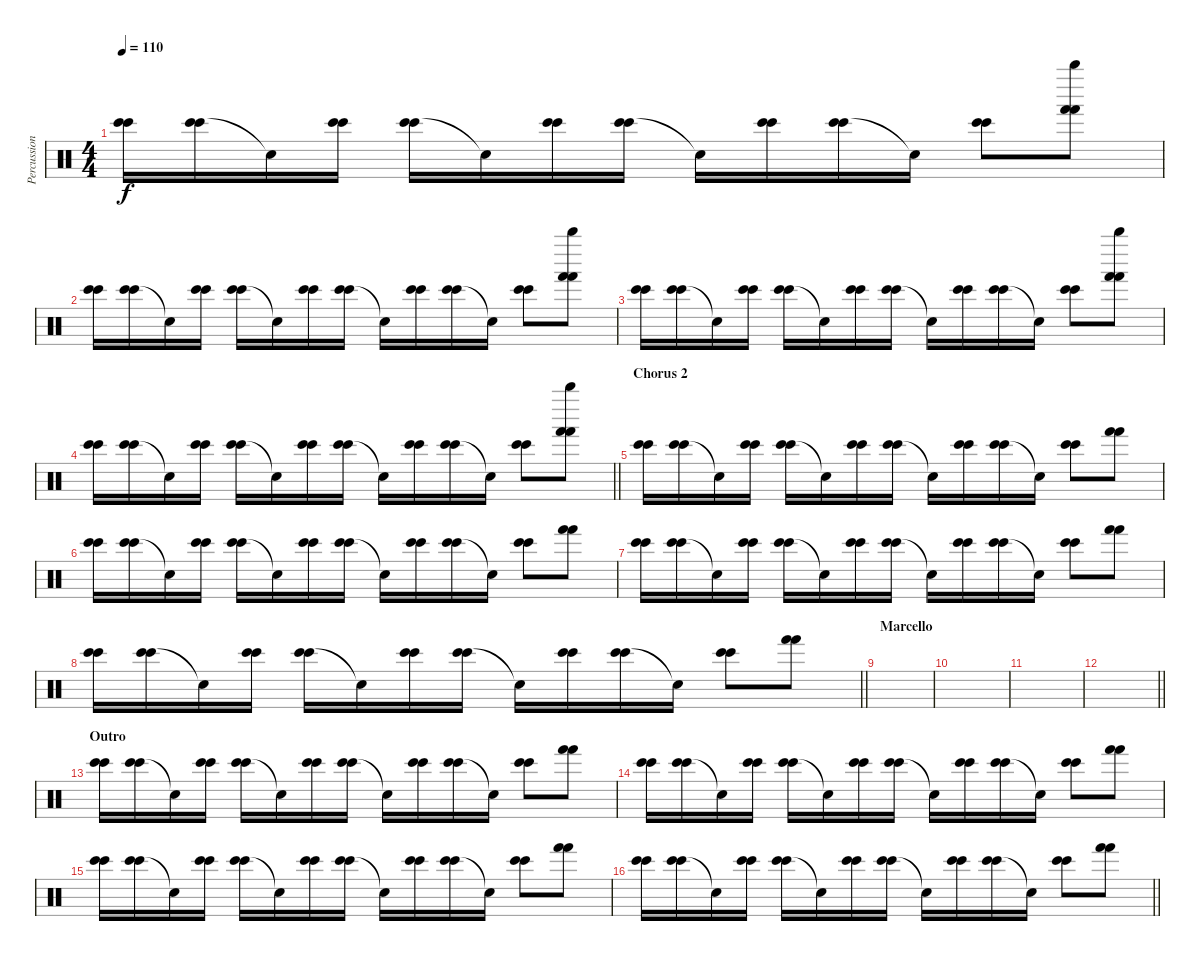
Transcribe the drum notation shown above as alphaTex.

\track ("Percussions" "Percussion") {instrument percussion}
\staff {score}
\articulation defaults
\ts (4 4)
\section ("" "")
\tempo 110
\clef neutral
\ks c
("Bongo High (hit)" "Bongo High (hit)").16{dy f} ("Bongo High (hit)" "Bongo High (hit)").16 "Snare (hit)"{t}.16 ("Bongo High (hit)" "Bongo High (hit)").16 ("Bongo High (hit)" "Bongo High (hit)").16 "Snare (hit)"{t}.16 ("Bongo High (hit)" "Bongo High (hit)").16 ("Bongo High (hit)" "Bongo High (hit)").16 "Snare (hit)"{t}.16 ("Bongo High (hit)" "Bongo High (hit)").16 ("Bongo High (hit)" "Bongo High (hit)").16 "Snare (hit)"{t}.16 ("Bongo High (hit)" "Bongo High (hit)").8 ("Whistle high (hit)" "Hand (hit)" "Hand (hit)").8 |
("Bongo High (hit)" "Bongo High (hit)").16 ("Bongo High (hit)" "Bongo High (hit)").16 "Snare (hit)"{t}.16 ("Bongo High (hit)" "Bongo High (hit)").16 ("Bongo High (hit)" "Bongo High (hit)").16 "Snare (hit)"{t}.16 ("Bongo High (hit)" "Bongo High (hit)").16 ("Bongo High (hit)" "Bongo High (hit)").16 "Snare (hit)"{t}.16 ("Bongo High (hit)" "Bongo High (hit)").16 ("Bongo High (hit)" "Bongo High (hit)").16 "Snare (hit)"{t}.16 ("Bongo High (hit)" "Bongo High (hit)").8 ("Whistle high (hit)" "Hand (hit)" "Hand (hit)").8 |
("Bongo High (hit)" "Bongo High (hit)").16 ("Bongo High (hit)" "Bongo High (hit)").16 "Snare (hit)"{t}.16 ("Bongo High (hit)" "Bongo High (hit)").16 ("Bongo High (hit)" "Bongo High (hit)").16 "Snare (hit)"{t}.16 ("Bongo High (hit)" "Bongo High (hit)").16 ("Bongo High (hit)" "Bongo High (hit)").16 "Snare (hit)"{t}.16 ("Bongo High (hit)" "Bongo High (hit)").16 ("Bongo High (hit)" "Bongo High (hit)").16 "Snare (hit)"{t}.16 ("Bongo High (hit)" "Bongo High (hit)").8 ("Whistle high (hit)" "Hand (hit)" "Hand (hit)").8 |
\barLineRight lightlight
("Bongo High (hit)" "Bongo High (hit)").16 ("Bongo High (hit)" "Bongo High (hit)").16 "Snare (hit)"{t}.16 ("Bongo High (hit)" "Bongo High (hit)").16 ("Bongo High (hit)" "Bongo High (hit)").16 "Snare (hit)"{t}.16 ("Bongo High (hit)" "Bongo High (hit)").16 ("Bongo High (hit)" "Bongo High (hit)").16 "Snare (hit)"{t}.16 ("Bongo High (hit)" "Bongo High (hit)").16 ("Bongo High (hit)" "Bongo High (hit)").16 "Snare (hit)"{t}.16 ("Bongo High (hit)" "Bongo High (hit)").8 ("Whistle high (hit)" "Hand (hit)" "Hand (hit)").8 |
\section ("" "Chorus 2")
("Bongo High (hit)" "Bongo High (hit)").16 ("Bongo High (hit)" "Bongo High (hit)").16 "Snare (hit)"{t}.16 ("Bongo High (hit)" "Bongo High (hit)").16 ("Bongo High (hit)" "Bongo High (hit)").16 "Snare (hit)"{t}.16 ("Bongo High (hit)" "Bongo High (hit)").16 ("Bongo High (hit)" "Bongo High (hit)").16 "Snare (hit)"{t}.16 ("Bongo High (hit)" "Bongo High (hit)").16 ("Bongo High (hit)" "Bongo High (hit)").16 "Snare (hit)"{t}.16 ("Bongo High (hit)" "Bongo High (hit)").8 ("Hand (hit)" "Hand (hit)").8 |
("Bongo High (hit)" "Bongo High (hit)").16 ("Bongo High (hit)" "Bongo High (hit)").16 "Snare (hit)"{t}.16 ("Bongo High (hit)" "Bongo High (hit)").16 ("Bongo High (hit)" "Bongo High (hit)").16 "Snare (hit)"{t}.16 ("Bongo High (hit)" "Bongo High (hit)").16 ("Bongo High (hit)" "Bongo High (hit)").16 "Snare (hit)"{t}.16 ("Bongo High (hit)" "Bongo High (hit)").16 ("Bongo High (hit)" "Bongo High (hit)").16 "Snare (hit)"{t}.16 ("Bongo High (hit)" "Bongo High (hit)").8 ("Hand (hit)" "Hand (hit)").8 |
("Bongo High (hit)" "Bongo High (hit)").16 ("Bongo High (hit)" "Bongo High (hit)").16 "Snare (hit)"{t}.16 ("Bongo High (hit)" "Bongo High (hit)").16 ("Bongo High (hit)" "Bongo High (hit)").16 "Snare (hit)"{t}.16 ("Bongo High (hit)" "Bongo High (hit)").16 ("Bongo High (hit)" "Bongo High (hit)").16 "Snare (hit)"{t}.16 ("Bongo High (hit)" "Bongo High (hit)").16 ("Bongo High (hit)" "Bongo High (hit)").16 "Snare (hit)"{t}.16 ("Bongo High (hit)" "Bongo High (hit)").8 ("Hand (hit)" "Hand (hit)").8 |
\barLineRight lightlight
("Bongo High (hit)" "Bongo High (hit)").16 ("Bongo High (hit)" "Bongo High (hit)").16 "Snare (hit)"{t}.16 ("Bongo High (hit)" "Bongo High (hit)").16 ("Bongo High (hit)" "Bongo High (hit)").16 "Snare (hit)"{t}.16 ("Bongo High (hit)" "Bongo High (hit)").16 ("Bongo High (hit)" "Bongo High (hit)").16 "Snare (hit)"{t}.16 ("Bongo High (hit)" "Bongo High (hit)").16 ("Bongo High (hit)" "Bongo High (hit)").16 "Snare (hit)"{t}.16 ("Bongo High (hit)" "Bongo High (hit)").8 ("Hand (hit)" "Hand (hit)").8 |
\section ("" "Marcello")
|
|
|
\barLineRight lightlight
|
\section ("" "Outro")
("Bongo High (hit)" "Bongo High (hit)").16 ("Bongo High (hit)" "Bongo High (hit)").16 "Snare (hit)"{t}.16 ("Bongo High (hit)" "Bongo High (hit)").16 ("Bongo High (hit)" "Bongo High (hit)").16 "Snare (hit)"{t}.16 ("Bongo High (hit)" "Bongo High (hit)").16 ("Bongo High (hit)" "Bongo High (hit)").16 "Snare (hit)"{t}.16 ("Bongo High (hit)" "Bongo High (hit)").16 ("Bongo High (hit)" "Bongo High (hit)").16 "Snare (hit)"{t}.16 ("Bongo High (hit)" "Bongo High (hit)").8 ("Hand (hit)" "Hand (hit)").8 |
("Bongo High (hit)" "Bongo High (hit)").16 ("Bongo High (hit)" "Bongo High (hit)").16 "Snare (hit)"{t}.16 ("Bongo High (hit)" "Bongo High (hit)").16 ("Bongo High (hit)" "Bongo High (hit)").16 "Snare (hit)"{t}.16 ("Bongo High (hit)" "Bongo High (hit)").16 ("Bongo High (hit)" "Bongo High (hit)").16 "Snare (hit)"{t}.16 ("Bongo High (hit)" "Bongo High (hit)").16 ("Bongo High (hit)" "Bongo High (hit)").16 "Snare (hit)"{t}.16 ("Bongo High (hit)" "Bongo High (hit)").8 ("Hand (hit)" "Hand (hit)").8 |
("Bongo High (hit)" "Bongo High (hit)").16 ("Bongo High (hit)" "Bongo High (hit)").16 "Snare (hit)"{t}.16 ("Bongo High (hit)" "Bongo High (hit)").16 ("Bongo High (hit)" "Bongo High (hit)").16 "Snare (hit)"{t}.16 ("Bongo High (hit)" "Bongo High (hit)").16 ("Bongo High (hit)" "Bongo High (hit)").16 "Snare (hit)"{t}.16 ("Bongo High (hit)" "Bongo High (hit)").16 ("Bongo High (hit)" "Bongo High (hit)").16 "Snare (hit)"{t}.16 ("Bongo High (hit)" "Bongo High (hit)").8 ("Hand (hit)" "Hand (hit)").8 |
\barLineRight lightlight
("Bongo High (hit)" "Bongo High (hit)").16 ("Bongo High (hit)" "Bongo High (hit)").16 "Snare (hit)"{t}.16 ("Bongo High (hit)" "Bongo High (hit)").16 ("Bongo High (hit)" "Bongo High (hit)").16 "Snare (hit)"{t}.16 ("Bongo High (hit)" "Bongo High (hit)").16 ("Bongo High (hit)" "Bongo High (hit)").16 "Snare (hit)"{t}.16 ("Bongo High (hit)" "Bongo High (hit)").16 ("Bongo High (hit)" "Bongo High (hit)").16 "Snare (hit)"{t}.16 ("Bongo High (hit)" "Bongo High (hit)").8 ("Hand (hit)" "Hand (hit)").8
